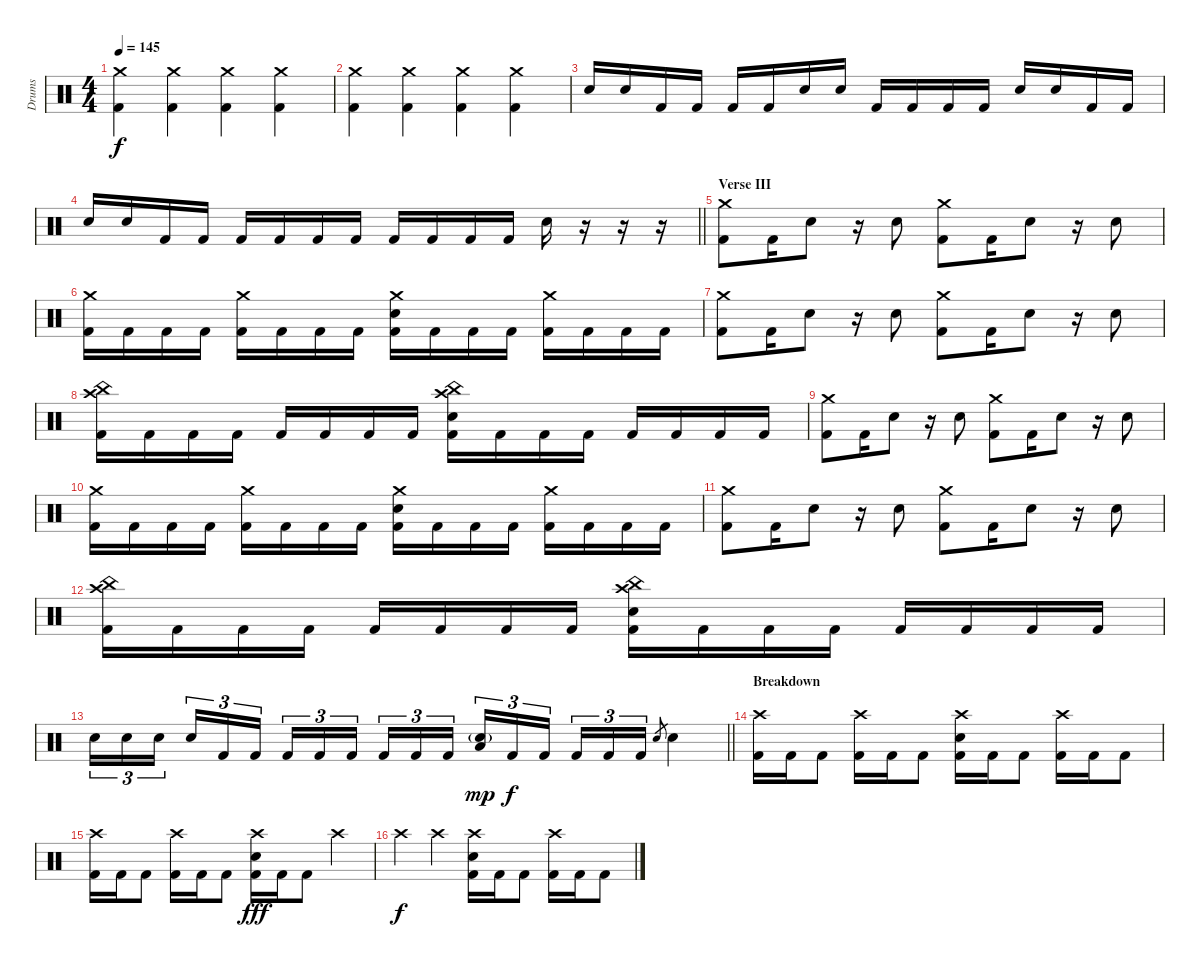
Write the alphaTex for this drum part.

\track ("Drums" "Drums") {instrument percussion}
\staff {score}
\articulation defaults
\ts (4 4)
\tempo 145
\clef neutral
\ks c
("Crash medium (hit)" "Kick (hit) 2").4{dy f} ("Crash medium (hit)" "Kick (hit) 2").4 ("Crash medium (hit)" "Kick (hit) 2").4 ("Crash medium (hit)" "Kick (hit) 2").4 |
("Crash medium (hit)" "Kick (hit) 2").4 ("Crash medium (hit)" "Kick (hit) 2").4 ("Crash medium (hit)" "Kick (hit) 2").4 ("Crash medium (hit)" "Kick (hit) 2").4 |
"Snare (hit) 2".16 "Snare (hit) 2".16 "Kick (hit) 2".16 "Kick (hit) 2".16 "Kick (hit) 2".16 "Kick (hit) 2".16 "Snare (hit) 2".16 "Snare (hit) 2".16 "Kick (hit) 2".16 "Kick (hit) 2".16 "Kick (hit) 2".16 "Kick (hit) 2".16 "Snare (hit) 2".16 "Snare (hit) 2".16 "Kick (hit) 2".16 "Kick (hit) 2".16 |
\barLineRight lightlight "Snare (hit) 2".16 "Snare (hit) 2".16 "Kick (hit) 2".16 "Kick (hit) 2".16 "Kick (hit) 2".16 "Kick (hit) 2".16 "Kick (hit) 2".16 "Kick (hit) 2".16 "Kick (hit) 2".16 "Kick (hit) 2".16 "Kick (hit) 2".16 "Kick (hit) 2".16 "Snare (hit) 2".16
r.16 r.16 r.16 |
\section ("" "Verse III")
("Crash medium (hit)" "Kick (hit) 2").8 "Kick (hit) 2".16 "Electric Snare (hit)".8 r.16 "Electric Snare (hit)".8 ("Crash medium (hit)" "Kick (hit) 2").8 "Kick (hit) 2".16 "Electric Snare (hit)".8 r.16 "Electric Snare (hit)".8 |
("Crash medium (hit)" "Kick (hit) 2").16 "Kick (hit) 2".16 "Kick (hit) 2".16 "Kick (hit) 2".16 ("Crash medium (hit)" "Kick (hit) 2").16 "Kick (hit) 2".16 "Kick (hit) 2".16 "Kick (hit) 2".16 ("Crash medium (hit)" "Electric Snare (hit)" "Kick (hit) 2").16 "Kick (hit) 2".16 "Kick (hit) 2".16 "Kick (hit) 2".16 ("Crash medium (hit)" "Kick (hit) 2").16 "Kick (hit) 2".16 "Kick (hit) 2".16 "Kick (hit) 2".16 |
("Crash medium (hit)" "Kick (hit) 2").8 "Kick (hit) 2".16 "Electric Snare (hit)".8 r.16 "Electric Snare (hit)".8 ("Crash medium (hit)" "Kick (hit) 2").8 "Kick (hit) 2".16 "Electric Snare (hit)".8 r.16 "Electric Snare (hit)".8 |
("Crash high (hit)" "China (hit)" "Kick (hit) 2").16 "Kick (hit) 2".16 "Kick (hit) 2".16 "Kick (hit) 2".16 "Kick (hit) 2".16 "Kick (hit) 2".16 "Kick (hit) 2".16 "Kick (hit) 2".16 ("Crash high (hit)" "China (hit)" "Electric Snare (hit)" "Kick (hit) 2").16 "Kick (hit) 2".16 "Kick (hit) 2".16 "Kick (hit) 2".16 "Kick (hit) 2".16 "Kick (hit) 2".16 "Kick (hit) 2".16 "Kick (hit) 2".16 |
("Crash medium (hit)" "Kick (hit) 2").8 "Kick (hit) 2".16 "Electric Snare (hit)".8 r.16 "Electric Snare (hit)".8 ("Crash medium (hit)" "Kick (hit) 2").8 "Kick (hit) 2".16 "Electric Snare (hit)".8 r.16 "Electric Snare (hit)".8 |
("Crash medium (hit)" "Kick (hit) 2").16 "Kick (hit) 2".16 "Kick (hit) 2".16 "Kick (hit) 2".16 ("Crash medium (hit)" "Kick (hit) 2").16 "Kick (hit) 2".16 "Kick (hit) 2".16 "Kick (hit) 2".16 ("Crash medium (hit)" "Electric Snare (hit)" "Kick (hit) 2").16 "Kick (hit) 2".16 "Kick (hit) 2".16 "Kick (hit) 2".16 ("Crash medium (hit)" "Kick (hit) 2").16 "Kick (hit) 2".16 "Kick (hit) 2".16 "Kick (hit) 2".16 |
("Crash medium (hit)" "Kick (hit) 2").8 "Kick (hit) 2".16 "Electric Snare (hit)".8 r.16 "Electric Snare (hit)".8 ("Crash medium (hit)" "Kick (hit) 2").8 "Kick (hit) 2".16 "Electric Snare (hit)".8 r.16 "Electric Snare (hit)".8 |
("Crash high (hit)" "China (hit)" "Kick (hit) 2").16 "Kick (hit) 2".16 "Kick (hit) 2".16 "Kick (hit) 2".16 "Kick (hit) 2".16 "Kick (hit) 2".16 "Kick (hit) 2".16 "Kick (hit) 2".16 ("Crash high (hit)" "China (hit)" "Snare (hit) 2" "Kick (hit) 2").16 "Kick (hit) 2".16 "Kick (hit) 2".16 "Kick (hit) 2".16 "Kick (hit) 2".16 "Kick (hit) 2".16 "Kick (hit) 2".16 "Kick (hit) 2".16 |
\barLineRight lightlight "Snare (hit) 2".16{tu (3 2)} "Snare (hit) 2".16{tu (3 2)} "Snare (hit) 2".16{tu (3 2) beam splitsecondary} "Snare (hit) 2".16{tu (3 2)} "Kick (hit) 2".16{tu (3 2)} "Kick (hit) 2".16{tu (3 2)} "Kick (hit) 2".16{tu (3 2)} "Kick (hit) 2".16{tu (3 2)} "Kick (hit) 2".16{tu (3 2) beam splitsecondary} "Kick (hit) 2".16{tu (3 2)} "Kick (hit) 2".16{tu (3 2)} "Kick (hit) 2".16{tu (3 2)}
("Low Floor Tom (hit)" "Snare (hit) 2"{g}).16{tu (3 2) dy mp} "Kick (hit) 2".16{tu (3 2) dy f} "Kick (hit) 2".16{tu (3 2) beam splitsecondary} "Kick (hit) 2".16{tu (3 2)} "Kick (hit) 2".16{tu (3 2)} "Kick (hit) 2".16{tu (3 2)} "Snare (hit) 2".8{gr} "Snare (hit) 2".4 |
\section ("" "Breakdown")
("Crash high (hit)" "Kick (hit) 2").16 "Kick (hit) 2".16 "Kick (hit) 2".8 ("Crash high (hit)" "Kick (hit) 2").16 "Kick (hit) 2".16 "Kick (hit) 2".8 ("Crash high (hit)" "Snare (hit) 2" "Kick (hit) 2").16 "Kick (hit) 2".16 "Kick (hit) 2".8 ("Crash high (hit)" "Kick (hit) 2").16 "Kick (hit) 2".16 "Kick (hit) 2".8 |
("Crash high (hit)" "Kick (hit) 2").16 "Kick (hit) 2".16 "Kick (hit) 2".8 ("Crash high (hit)" "Kick (hit) 2").16 "Kick (hit) 2".16 "Kick (hit) 2".8 ("Crash high (hit)" "Snare (hit) 2" "Kick (hit) 2").16{dy fff} "Kick (hit) 2".16 "Kick (hit) 2".8 "Crash high (hit)".4 |
"Crash high (hit)".4{dy f} "Crash high (hit)".4 ("Crash high (hit)" "Snare (hit) 2" "Kick (hit) 2").16 "Kick (hit) 2".16 "Kick (hit) 2".8 ("Crash high (hit)" "Kick (hit) 2").16 "Kick (hit) 2".16 "Kick (hit) 2".8
